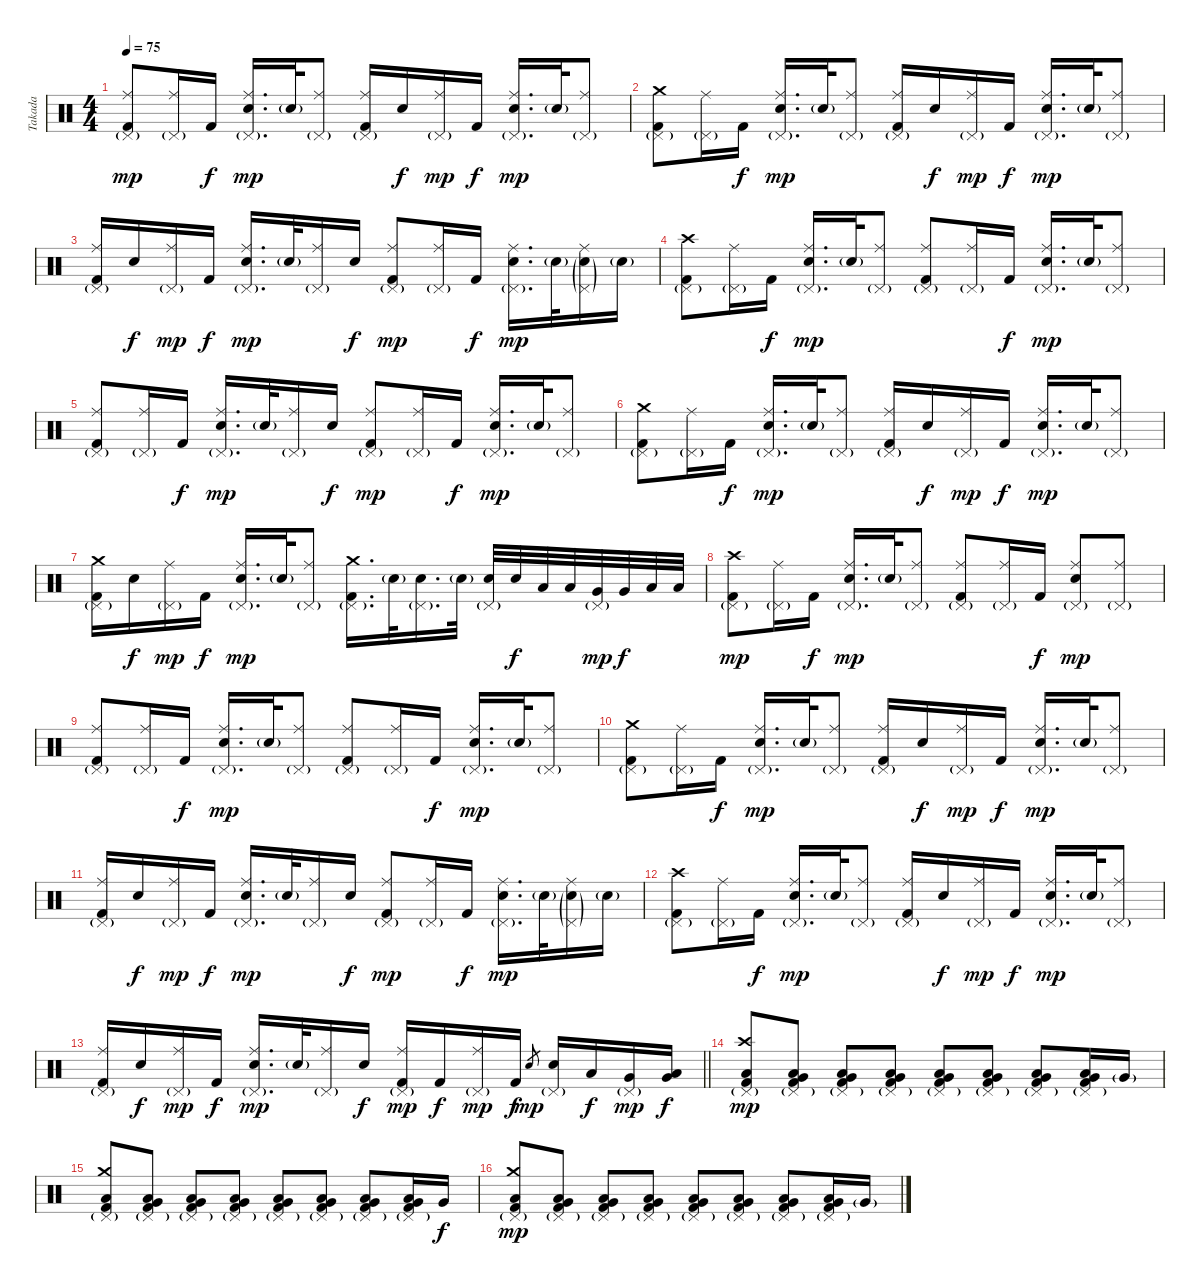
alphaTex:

\track ("Takada" "Takada") {instrument percussion}
\staff {score}
\articulation defaults
\ts (4 4)
\tempo 75
\clef neutral
\ks c
("Ride (middle)" "Pedal Hi-Hat (hit)"{g} "Kick (hit) 2").8{dy mp} ("Ride (middle)" "Pedal Hi-Hat (hit)"{g}).16 "Kick (hit) 2".16{dy f} ("Ride (middle)" "Pedal Hi-Hat (hit)"{g} "Electric Snare (hit)").16{d dy mp} "Electric Snare (hit)"{g}.32 ("Ride (middle)" "Pedal Hi-Hat (hit)"{g}).8 ("Ride (middle)" "Pedal Hi-Hat (hit)"{g} "Kick (hit) 2").16 "Electric Snare (hit)".16{dy f} ("Ride (middle)" "Pedal Hi-Hat (hit)"{g}).16{dy mp} "Kick (hit) 2".16{dy f} ("Ride (middle)" "Pedal Hi-Hat (hit)"{g} "Electric Snare (hit)").16{d dy mp} "Electric Snare (hit)"{g}.32 ("Ride (middle)" "Pedal Hi-Hat (hit)"{g}).8 |
("Crash medium (hit)" "Pedal Hi-Hat (hit)"{g} "Kick (hit) 2").8 ("Ride (middle)" "Pedal Hi-Hat (hit)"{g}).16 "Kick (hit) 2".16{dy f} ("Ride (middle)" "Pedal Hi-Hat (hit)"{g} "Electric Snare (hit)").16{d dy mp} "Electric Snare (hit)"{g}.32 ("Ride (middle)" "Pedal Hi-Hat (hit)"{g}).8 ("Ride (middle)" "Pedal Hi-Hat (hit)"{g} "Kick (hit) 2").16 "Electric Snare (hit)".16{dy f} ("Ride (middle)" "Pedal Hi-Hat (hit)"{g}).16{dy mp} "Kick (hit) 2".16{dy f} ("Ride (middle)" "Pedal Hi-Hat (hit)"{g} "Electric Snare (hit)").16{d dy mp} "Electric Snare (hit)"{g}.32 ("Ride (middle)" "Pedal Hi-Hat (hit)"{g}).8 |
("Ride (middle)" "Pedal Hi-Hat (hit)"{g} "Kick (hit) 2").16 "Electric Snare (hit)".16{dy f} ("Ride (middle)" "Pedal Hi-Hat (hit)"{g}).16{dy mp} "Kick (hit) 2".16{dy f} ("Ride (middle)" "Pedal Hi-Hat (hit)"{g} "Electric Snare (hit)").16{d dy mp} "Electric Snare (hit)"{g}.32 ("Ride (middle)" "Pedal Hi-Hat (hit)"{g}).16 "Electric Snare (hit)".16{dy f} ("Ride (middle)" "Pedal Hi-Hat (hit)"{g} "Kick (hit) 2").8{dy mp} ("Ride (middle)" "Pedal Hi-Hat (hit)"{g}).16 "Kick (hit) 2".16{dy f} ("Ride (middle)" "Pedal Hi-Hat (hit)"{g} "Electric Snare (hit)").16{d dy mp} "Electric Snare (hit)"{g}.32 ("Ride (middle)" "Pedal Hi-Hat (hit)"{g} "Electric Snare (hit)"{g}).16 "Electric Snare (hit)"{g}.16 |
("Crash high (hit)" "Pedal Hi-Hat (hit)"{g} "Kick (hit) 2").8 ("Ride (middle)" "Pedal Hi-Hat (hit)"{g}).16 "Kick (hit) 2".16{dy f} ("Ride (middle)" "Pedal Hi-Hat (hit)"{g} "Electric Snare (hit)").16{d dy mp} "Electric Snare (hit)"{g}.32 ("Ride (middle)" "Pedal Hi-Hat (hit)"{g}).8 ("Ride (middle)" "Pedal Hi-Hat (hit)"{g} "Kick (hit) 2").8 ("Ride (middle)" "Pedal Hi-Hat (hit)"{g}).16 "Kick (hit) 2".16{dy f} ("Ride (middle)" "Pedal Hi-Hat (hit)"{g} "Electric Snare (hit)").16{d dy mp} "Electric Snare (hit)"{g}.32 ("Ride (middle)" "Pedal Hi-Hat (hit)"{g}).8 |
("Ride (middle)" "Pedal Hi-Hat (hit)"{g} "Kick (hit) 2").8 ("Ride (middle)" "Pedal Hi-Hat (hit)"{g}).16 "Kick (hit) 2".16{dy f} ("Ride (middle)" "Pedal Hi-Hat (hit)"{g} "Electric Snare (hit)").16{d dy mp} "Electric Snare (hit)"{g}.32 ("Ride (middle)" "Pedal Hi-Hat (hit)"{g}).16 "Electric Snare (hit)".16{dy f} ("Ride (middle)" "Pedal Hi-Hat (hit)"{g} "Kick (hit) 2").8{dy mp} ("Ride (middle)" "Pedal Hi-Hat (hit)"{g}).16 "Kick (hit) 2".16{dy f} ("Ride (middle)" "Pedal Hi-Hat (hit)"{g} "Electric Snare (hit)").16{d dy mp} "Electric Snare (hit)"{g}.32 ("Ride (middle)" "Pedal Hi-Hat (hit)"{g}).8 |
("Crash medium (hit)" "Pedal Hi-Hat (hit)"{g} "Kick (hit) 2").8 ("Ride (middle)" "Pedal Hi-Hat (hit)"{g}).16 "Kick (hit) 2".16{dy f} ("Ride (middle)" "Pedal Hi-Hat (hit)"{g} "Electric Snare (hit)").16{d dy mp} "Electric Snare (hit)"{g}.32 ("Ride (middle)" "Pedal Hi-Hat (hit)"{g}).8 ("Ride (middle)" "Pedal Hi-Hat (hit)"{g} "Kick (hit) 2").16 "Electric Snare (hit)".16{dy f} ("Ride (middle)" "Pedal Hi-Hat (hit)"{g}).16{dy mp} "Kick (hit) 2".16{dy f} ("Ride (middle)" "Pedal Hi-Hat (hit)"{g} "Electric Snare (hit)").16{d dy mp} "Electric Snare (hit)"{g}.32 ("Ride (middle)" "Pedal Hi-Hat (hit)"{g}).8 |
("Crash medium (hit)" "Pedal Hi-Hat (hit)"{g} "Kick (hit) 2").16 "Electric Snare (hit)".16{dy f} ("Ride (middle)" "Pedal Hi-Hat (hit)"{g}).16{dy mp} "Kick (hit) 2".16{dy f} ("Ride (middle)" "Pedal Hi-Hat (hit)"{g} "Electric Snare (hit)").16{d dy mp} "Electric Snare (hit)"{g}.32 ("Ride (middle)" "Pedal Hi-Hat (hit)"{g}).8 ("Crash medium (hit)" "Pedal Hi-Hat (hit)"{g} "Kick (hit) 2").16{d} "Electric Snare (hit)"{g}.32 ("Pedal Hi-Hat (hit)"{g} "Electric Snare (hit)").16{d} "Electric Snare (hit)"{g}.32 ("Pedal Hi-Hat (hit)"{g} "Electric Snare (hit)").32 "Electric Snare (hit)".32{dy f} "Low Tom (hit)".32 "Low Tom (hit)".32 ("Pedal Hi-Hat (hit)"{g} "Very Low Tom (hit)").32{dy mp} "Very Low Tom (hit)".32{dy f} "Low Floor Tom (hit)".32 "Low Floor Tom (hit)".32 |
("Crash high (hit)" "Pedal Hi-Hat (hit)"{g} "Kick (hit) 2").8{dy mp} ("Ride (middle)" "Pedal Hi-Hat (hit)"{g}).16 "Kick (hit) 2".16{dy f} ("Ride (middle)" "Pedal Hi-Hat (hit)"{g} "Electric Snare (hit)").16{d dy mp} "Electric Snare (hit)"{g}.32 ("Ride (middle)" "Pedal Hi-Hat (hit)"{g}).8 ("Ride (middle)" "Pedal Hi-Hat (hit)"{g} "Kick (hit) 2").8 ("Ride (middle)" "Pedal Hi-Hat (hit)"{g}).16 "Kick (hit) 2".16{dy f} ("Ride (middle)" "Pedal Hi-Hat (hit)"{g} "Electric Snare (hit)").8{dy mp} ("Ride (middle)" "Pedal Hi-Hat (hit)"{g}).8 |
("Ride (middle)" "Pedal Hi-Hat (hit)"{g} "Kick (hit) 2").8 ("Ride (middle)" "Pedal Hi-Hat (hit)"{g}).16 "Kick (hit) 2".16{dy f} ("Ride (middle)" "Pedal Hi-Hat (hit)"{g} "Electric Snare (hit)").16{d dy mp} "Electric Snare (hit)"{g}.32 ("Ride (middle)" "Pedal Hi-Hat (hit)"{g}).8 ("Ride (middle)" "Pedal Hi-Hat (hit)"{g} "Kick (hit) 2").8 ("Ride (middle)" "Pedal Hi-Hat (hit)"{g}).16 "Kick (hit) 2".16{dy f} ("Ride (middle)" "Pedal Hi-Hat (hit)"{g} "Electric Snare (hit)").16{d dy mp} "Electric Snare (hit)"{g}.32 ("Ride (middle)" "Pedal Hi-Hat (hit)"{g}).8 |
("Crash medium (hit)" "Pedal Hi-Hat (hit)"{g} "Kick (hit) 2").8 ("Ride (middle)" "Pedal Hi-Hat (hit)"{g}).16 "Kick (hit) 2".16{dy f} ("Ride (middle)" "Pedal Hi-Hat (hit)"{g} "Electric Snare (hit)").16{d dy mp} "Electric Snare (hit)"{g}.32 ("Ride (middle)" "Pedal Hi-Hat (hit)"{g}).8 ("Ride (middle)" "Pedal Hi-Hat (hit)"{g} "Kick (hit) 2").16 "Electric Snare (hit)".16{dy f} ("Ride (middle)" "Pedal Hi-Hat (hit)"{g}).16{dy mp} "Kick (hit) 2".16{dy f} ("Ride (middle)" "Pedal Hi-Hat (hit)"{g} "Electric Snare (hit)").16{d dy mp} "Electric Snare (hit)"{g}.32 ("Ride (middle)" "Pedal Hi-Hat (hit)"{g}).8 |
("Ride (middle)" "Pedal Hi-Hat (hit)"{g} "Kick (hit) 2").16 "Electric Snare (hit)".16{dy f} ("Ride (middle)" "Pedal Hi-Hat (hit)"{g}).16{dy mp} "Kick (hit) 2".16{dy f} ("Ride (middle)" "Pedal Hi-Hat (hit)"{g} "Electric Snare (hit)").16{d dy mp} "Electric Snare (hit)"{g}.32 ("Ride (middle)" "Pedal Hi-Hat (hit)"{g}).16 "Electric Snare (hit)".16{dy f} ("Ride (middle)" "Pedal Hi-Hat (hit)"{g} "Kick (hit) 2").8{dy mp} ("Ride (middle)" "Pedal Hi-Hat (hit)"{g}).16 "Kick (hit) 2".16{dy f} ("Ride (middle)" "Pedal Hi-Hat (hit)"{g} "Electric Snare (hit)").16{d dy mp} "Electric Snare (hit)"{g}.32 ("Ride (middle)" "Pedal Hi-Hat (hit)"{g} "Electric Snare (hit)"{g}).16 "Electric Snare (hit)"{g}.16 |
("Crash high (hit)" "Pedal Hi-Hat (hit)"{g} "Kick (hit) 2").8 ("Ride (middle)" "Pedal Hi-Hat (hit)"{g}).16 "Kick (hit) 2".16{dy f} ("Ride (middle)" "Pedal Hi-Hat (hit)"{g} "Electric Snare (hit)").16{d dy mp} "Electric Snare (hit)"{g}.32 ("Ride (middle)" "Pedal Hi-Hat (hit)"{g}).8 ("Ride (middle)" "Pedal Hi-Hat (hit)"{g} "Kick (hit) 2").16 "Electric Snare (hit)".16{dy f} ("Ride (middle)" "Pedal Hi-Hat (hit)"{g}).16{dy mp} "Kick (hit) 2".16{dy f} ("Ride (middle)" "Pedal Hi-Hat (hit)"{g} "Electric Snare (hit)").16{d dy mp} "Electric Snare (hit)"{g}.32 ("Ride (middle)" "Pedal Hi-Hat (hit)"{g}).8 |
\barLineRight lightlight
("Ride (middle)" "Pedal Hi-Hat (hit)"{g} "Kick (hit) 2").16 "Electric Snare (hit)".16{dy f} ("Ride (middle)" "Pedal Hi-Hat (hit)"{g}).16{dy mp} "Kick (hit) 2".16{dy f} ("Ride (middle)" "Pedal Hi-Hat (hit)"{g} "Electric Snare (hit)").16{d dy mp} "Electric Snare (hit)"{g}.32 ("Ride (middle)" "Pedal Hi-Hat (hit)"{g}).16 "Electric Snare (hit)".16{dy f} ("Ride (middle)" "Pedal Hi-Hat (hit)"{g} "Kick (hit) 2").16{dy mp} "Kick (hit) 2".16{dy f} ("Ride (middle)" "Pedal Hi-Hat (hit)"{g}).16{dy mp} "Kick (hit) 2".16{dy f} "Electric Snare (hit)".8{gr dy mp} ("Pedal Hi-Hat (hit)"{g} "Electric Snare (hit)").16 "Low Tom (hit)".16{dy f} ("Pedal Hi-Hat (hit)"{g} "Very Low Tom (hit)").16{dy mp} ("Very Low Tom (hit)" "Low Floor Tom (hit)").16{dy f} |
\section ("" "")
("Pedal Hi-Hat (hit)"{g} "Crash high (hit)" "Low Floor Tom (hit)" "Kick (hit) 2").8{dy mp} ("Pedal Hi-Hat (hit)"{g} "Very Low Tom (hit)" "Low Floor Tom (hit)" "Kick (hit) 2").8 ("Pedal Hi-Hat (hit)"{g} "Very Low Tom (hit)" "Low Floor Tom (hit)" "Kick (hit) 2").8 ("Pedal Hi-Hat (hit)"{g} "Very Low Tom (hit)" "Low Floor Tom (hit)" "Kick (hit) 2").8 ("Pedal Hi-Hat (hit)"{g} "Very Low Tom (hit)" "Low Floor Tom (hit)" "Kick (hit) 2").8 ("Pedal Hi-Hat (hit)"{g} "Very Low Tom (hit)" "Low Floor Tom (hit)" "Kick (hit) 2").8 ("Pedal Hi-Hat (hit)"{g} "Very Low Tom (hit)" "Low Floor Tom (hit)" "Kick (hit) 2").8 ("Pedal Hi-Hat (hit)"{g} "Very Low Tom (hit)" "Low Floor Tom (hit)" "Kick (hit) 2").16 "Very Low Tom (hit)"{g}.16 |
("Pedal Hi-Hat (hit)"{g} "Crash medium (hit)" "Low Floor Tom (hit)" "Kick (hit) 2").8 ("Pedal Hi-Hat (hit)"{g} "Very Low Tom (hit)" "Low Floor Tom (hit)" "Kick (hit) 2").8 ("Pedal Hi-Hat (hit)"{g} "Very Low Tom (hit)" "Low Floor Tom (hit)" "Kick (hit) 2").8 ("Pedal Hi-Hat (hit)"{g} "Very Low Tom (hit)" "Low Floor Tom (hit)" "Kick (hit) 2").8 ("Pedal Hi-Hat (hit)"{g} "Very Low Tom (hit)" "Low Floor Tom (hit)" "Kick (hit) 2").8 ("Pedal Hi-Hat (hit)"{g} "Very Low Tom (hit)" "Low Floor Tom (hit)" "Kick (hit) 2").8 ("Pedal Hi-Hat (hit)"{g} "Very Low Tom (hit)" "Low Floor Tom (hit)" "Kick (hit) 2").8 ("Pedal Hi-Hat (hit)"{g} "Very Low Tom (hit)" "Low Floor Tom (hit)" "Kick (hit) 2").16 "Very Low Tom (hit)".16{dy f} |
("Pedal Hi-Hat (hit)"{g} "Crash medium (hit)" "Low Floor Tom (hit)" "Kick (hit) 2").8{dy mp} ("Pedal Hi-Hat (hit)"{g} "Very Low Tom (hit)" "Low Floor Tom (hit)" "Kick (hit) 2").8 ("Pedal Hi-Hat (hit)"{g} "Very Low Tom (hit)" "Low Floor Tom (hit)" "Kick (hit) 2").8 ("Pedal Hi-Hat (hit)"{g} "Very Low Tom (hit)" "Low Floor Tom (hit)" "Kick (hit) 2").8 ("Pedal Hi-Hat (hit)"{g} "Very Low Tom (hit)" "Low Floor Tom (hit)" "Kick (hit) 2").8 ("Pedal Hi-Hat (hit)"{g} "Very Low Tom (hit)" "Low Floor Tom (hit)" "Kick (hit) 2").8 ("Pedal Hi-Hat (hit)"{g} "Very Low Tom (hit)" "Low Floor Tom (hit)" "Kick (hit) 2").8 ("Pedal Hi-Hat (hit)"{g} "Very Low Tom (hit)" "Low Floor Tom (hit)" "Kick (hit) 2").16 "Very Low Tom (hit)"{g}.16
